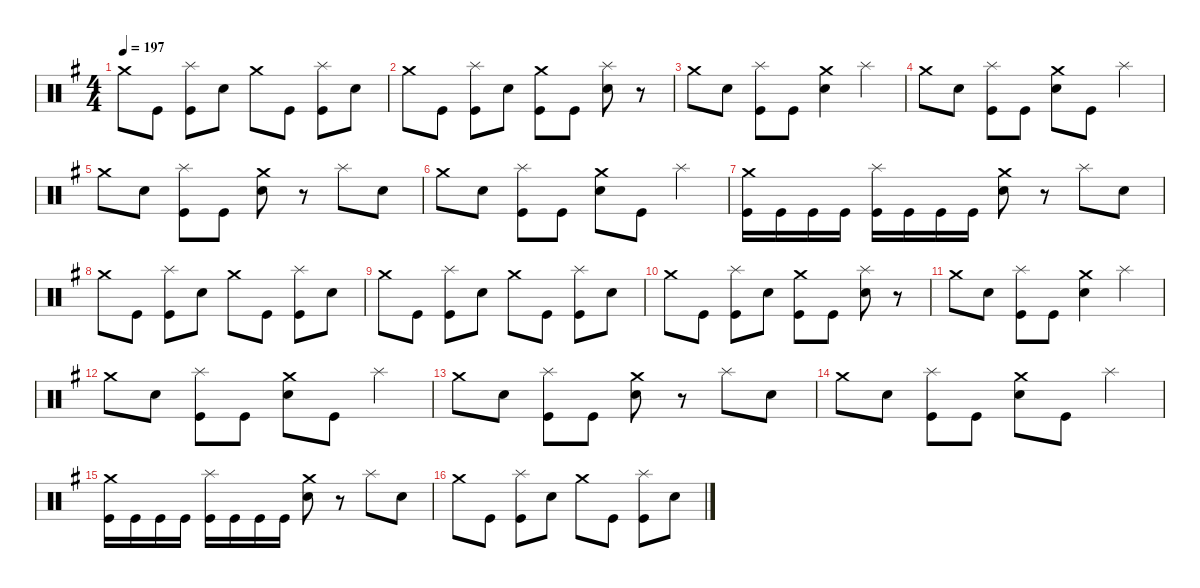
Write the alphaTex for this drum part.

\defaultSystemsLayout 4
\hideDynamics
\bracketExtendMode nobrackets
\singleTrackTrackNamePolicy hidden
\multiTrackTrackNamePolicy hidden
\firstSystemTrackNameMode fullname
\firstSystemTrackNameOrientation horizontal
\otherSystemsTrackNameOrientation horizontal
\track ("Drums" "drm.") {defaultSystemsLayout 4 instrument percussion}
\staff {score}
\articulation defaults
\ts (4 4)
\tempo 197
\clef neutral
\ks eminor "Crash medium (hit)"{acc forcenatural}.8{dy mf beam Down} "Kick (hit)"{acc forcenatural}.8{dy f beam Down}
("Splash (hit)"{acc forcenatural} "Kick (hit)"{acc forcenatural}).8{dy mf beam Down} "Snare (hit) 2"{acc forcenatural}.8{dy f beam Down} "Crash medium (hit)"{acc forcenatural}.8{dy mf beam Down} "Kick (hit)"{acc forcenatural}.8{dy f beam Down} ("Splash (hit)"{acc forcenatural} "Kick (hit)"{acc forcenatural}).8{dy mf beam Down} "Snare (hit) 2"{acc forcenatural}.8{dy f beam Down} |
"Crash medium (hit)"{acc forcenatural}.8{dy mf beam Down} "Kick (hit)"{acc forcenatural}.8{dy f beam Down} ("Splash (hit)"{acc forcenatural} "Kick (hit)"{acc forcenatural}).8{dy mf beam Down} "Snare (hit) 2"{acc forcenatural}.8{dy f beam Down} ("Crash medium (hit)"{acc forcenatural} "Kick (hit)"{acc forcenatural}).8{dy mf beam Down} "Kick (hit)"{acc forcenatural}.8{dy f beam Down} ("Splash (hit)"{acc forcenatural} "Snare (hit) 2"{acc forcenatural}).8{dy mf beam Down} r.8{beam Down} |
"Crash medium (hit)"{acc forcenatural}.8{beam Down} "Snare (hit) 2"{acc forcenatural}.8{dy f beam Down} ("Splash (hit)"{acc forcenatural} "Kick (hit)"{acc forcenatural}).8{dy mf beam Down} "Kick (hit)"{acc forcenatural}.8{dy f beam Down} ("Crash medium (hit)"{acc forcenatural} "Snare (hit) 2"{acc forcenatural}).4{dy mf beam Down} "Splash (hit)"{acc forcenatural}.4{beam Down} |
"Crash medium (hit)"{acc forcenatural}.8{beam Down} "Snare (hit) 2"{acc forcenatural}.8{dy f beam Down} ("Splash (hit)"{acc forcenatural} "Kick (hit)"{acc forcenatural}).8{dy mf beam Down} "Kick (hit)"{acc forcenatural}.8{dy f beam Down} ("Crash medium (hit)"{acc forcenatural} "Snare (hit) 2"{acc forcenatural}).8{dy mf beam Down} "Kick (hit)"{acc forcenatural}.8{dy f beam Down} "Splash (hit)"{acc forcenatural}.4{dy mf beam Down} |
"Crash medium (hit)"{acc forcenatural}.8{beam Down} "Snare (hit) 2"{acc forcenatural}.8{dy f beam Down} ("Splash (hit)"{acc forcenatural} "Kick (hit)"{acc forcenatural}).8{dy mf beam Down} "Kick (hit)"{acc forcenatural}.8{dy f beam Down} ("Crash medium (hit)"{acc forcenatural} "Snare (hit) 2"{acc forcenatural}).8{dy mf beam Down} r.8{beam Down} "Splash (hit)"{acc forcenatural}.8{beam Down} "Snare (hit) 2"{acc forcenatural}.8{dy f beam Down} |
"Crash medium (hit)"{acc forcenatural}.8{dy mf beam Down} "Snare (hit) 2"{acc forcenatural}.8{dy f beam Down} ("Splash (hit)"{acc forcenatural} "Kick (hit)"{acc forcenatural}).8{dy mf beam Down} "Kick (hit)"{acc forcenatural}.8{dy f beam Down} ("Crash medium (hit)"{acc forcenatural} "Snare (hit) 2"{acc forcenatural}).8{dy mf beam Down} "Kick (hit)"{acc forcenatural}.8{dy f beam Down} "Splash (hit)"{acc forcenatural}.4{dy mf beam Down} |
("Crash medium (hit)"{acc forcenatural} "Kick (hit)"{acc forcenatural}).16{beam Down} "Kick (hit)"{acc forcenatural}.16{dy f beam Down} "Kick (hit)"{acc forcenatural}.16{beam Down} "Kick (hit)"{acc forcenatural}.16{beam Down} ("Splash (hit)"{acc forcenatural} "Kick (hit)"{acc forcenatural}).16{dy mf beam Down} "Kick (hit)"{acc forcenatural}.16{dy f beam Down} "Kick (hit)"{acc forcenatural}.16{beam Down} "Kick (hit)"{acc forcenatural}.16{beam Down} ("Crash medium (hit)"{acc forcenatural} "Snare (hit) 2"{acc forcenatural}).8{dy mf beam Down} r.8{beam Down} "Splash (hit)"{acc forcenatural}.8{beam Down} "Snare (hit) 2"{acc forcenatural}.8{dy f beam Down} |
"Crash medium (hit)"{acc forcenatural}.8{dy mf beam Down} "Kick (hit)"{acc forcenatural}.8{dy f beam Down} ("Splash (hit)"{acc forcenatural} "Kick (hit)"{acc forcenatural}).8{dy mf beam Down} "Snare (hit) 2"{acc forcenatural}.8{dy f beam Down} "Crash medium (hit)"{acc forcenatural}.8{dy mf beam Down} "Kick (hit)"{acc forcenatural}.8{dy f beam Down} ("Splash (hit)"{acc forcenatural} "Kick (hit)"{acc forcenatural}).8{dy mf beam Down} "Snare (hit) 2"{acc forcenatural}.8{dy f beam Down} |
"Crash medium (hit)"{acc forcenatural}.8{dy mf beam Down} "Kick (hit)"{acc forcenatural}.8{dy f beam Down} ("Splash (hit)"{acc forcenatural} "Kick (hit)"{acc forcenatural}).8{dy mf beam Down} "Snare (hit) 2"{acc forcenatural}.8{dy f beam Down} "Crash medium (hit)"{acc forcenatural}.8{dy mf beam Down} "Kick (hit)"{acc forcenatural}.8{dy f beam Down} ("Splash (hit)"{acc forcenatural} "Kick (hit)"{acc forcenatural}).8{dy mf beam Down} "Snare (hit) 2"{acc forcenatural}.8{dy f beam Down} |
"Crash medium (hit)"{acc forcenatural}.8{dy mf beam Down} "Kick (hit)"{acc forcenatural}.8{dy f beam Down} ("Splash (hit)"{acc forcenatural} "Kick (hit)"{acc forcenatural}).8{dy mf beam Down} "Snare (hit) 2"{acc forcenatural}.8{dy f beam Down} ("Crash medium (hit)"{acc forcenatural} "Kick (hit)"{acc forcenatural}).8{dy mf beam Down} "Kick (hit)"{acc forcenatural}.8{dy f beam Down} ("Splash (hit)"{acc forcenatural} "Snare (hit) 2"{acc forcenatural}).8{dy mf beam Down} r.8{beam Down} |
"Crash medium (hit)"{acc forcenatural}.8{beam Down} "Snare (hit) 2"{acc forcenatural}.8{dy f beam Down} ("Splash (hit)"{acc forcenatural} "Kick (hit)"{acc forcenatural}).8{dy mf beam Down} "Kick (hit)"{acc forcenatural}.8{dy f beam Down} ("Crash medium (hit)"{acc forcenatural} "Snare (hit) 2"{acc forcenatural}).4{dy mf beam Down} "Splash (hit)"{acc forcenatural}.4{beam Down} |
"Crash medium (hit)"{acc forcenatural}.8{beam Down} "Snare (hit) 2"{acc forcenatural}.8{dy f beam Down} ("Splash (hit)"{acc forcenatural} "Kick (hit)"{acc forcenatural}).8{dy mf beam Down} "Kick (hit)"{acc forcenatural}.8{dy f beam Down} ("Crash medium (hit)"{acc forcenatural} "Snare (hit) 2"{acc forcenatural}).8{dy mf beam Down} "Kick (hit)"{acc forcenatural}.8{dy f beam Down} "Splash (hit)"{acc forcenatural}.4{dy mf beam Down} |
"Crash medium (hit)"{acc forcenatural}.8{beam Down} "Snare (hit) 2"{acc forcenatural}.8{dy f beam Down} ("Splash (hit)"{acc forcenatural} "Kick (hit)"{acc forcenatural}).8{dy mf beam Down} "Kick (hit)"{acc forcenatural}.8{dy f beam Down} ("Crash medium (hit)"{acc forcenatural} "Snare (hit) 2"{acc forcenatural}).8{dy mf beam Down} r.8{beam Down} "Splash (hit)"{acc forcenatural}.8{beam Down} "Snare (hit) 2"{acc forcenatural}.8{dy f beam Down} |
"Crash medium (hit)"{acc forcenatural}.8{dy mf beam Down} "Snare (hit) 2"{acc forcenatural}.8{dy f beam Down} ("Splash (hit)"{acc forcenatural} "Kick (hit)"{acc forcenatural}).8{dy mf beam Down} "Kick (hit)"{acc forcenatural}.8{dy f beam Down} ("Crash medium (hit)"{acc forcenatural} "Snare (hit) 2"{acc forcenatural}).8{dy mf beam Down} "Kick (hit)"{acc forcenatural}.8{dy f beam Down} "Splash (hit)"{acc forcenatural}.4{dy mf beam Down} |
("Crash medium (hit)"{acc forcenatural} "Kick (hit)"{acc forcenatural}).16{beam Down} "Kick (hit)"{acc forcenatural}.16{dy f beam Down} "Kick (hit)"{acc forcenatural}.16{beam Down} "Kick (hit)"{acc forcenatural}.16{beam Down} ("Splash (hit)"{acc forcenatural} "Kick (hit)"{acc forcenatural}).16{dy mf beam Down} "Kick (hit)"{acc forcenatural}.16{dy f beam Down} "Kick (hit)"{acc forcenatural}.16{beam Down} "Kick (hit)"{acc forcenatural}.16{beam Down} ("Crash medium (hit)"{acc forcenatural} "Snare (hit) 2"{acc forcenatural}).8{dy mf beam Down} r.8{beam Down} "Splash (hit)"{acc forcenatural}.8{beam Down} "Snare (hit) 2"{acc forcenatural}.8{dy f beam Down} |
"Crash medium (hit)"{acc forcenatural}.8{dy mf beam Down} "Kick (hit)"{acc forcenatural}.8{dy f beam Down} ("Splash (hit)"{acc forcenatural} "Kick (hit)"{acc forcenatural}).8{dy mf beam Down} "Snare (hit) 2"{acc forcenatural}.8{dy f beam Down} "Crash medium (hit)"{acc forcenatural}.8{dy mf beam Down} "Kick (hit)"{acc forcenatural}.8{dy f beam Down} ("Splash (hit)"{acc forcenatural} "Kick (hit)"{acc forcenatural}).8{dy mf beam Down} "Snare (hit) 2"{acc forcenatural}.8{dy f beam Down}
